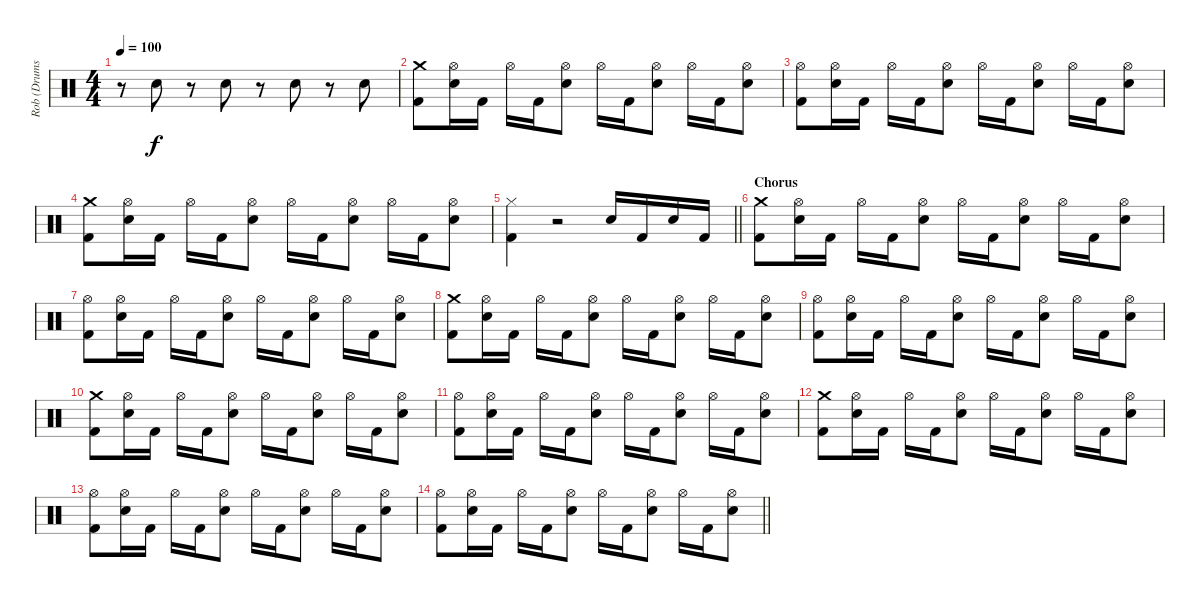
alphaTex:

\track ("Rob (Drums)" "Rob (Drums") {instrument percussion}
\staff {score}
\articulation defaults
\ts (4 4)
\tempo 100
\clef neutral
\ks c
r.8{dy f} "Electric Snare (hit)".8 r.8 "Electric Snare (hit)".8 r.8 "Electric Snare (hit)".8 r.8 "Electric Snare (hit)".8 |
("Crash medium (hit)" "Kick (hit) 2").8 ("Hi-Hat (open)" "Electric Snare (hit)").16 "Kick (hit) 2".16 "Hi-Hat (open)".16 "Kick (hit) 2".16 ("Hi-Hat (open)" "Electric Snare (hit)").8 "Hi-Hat (open)".16 "Kick (hit) 2".16 ("Hi-Hat (open)" "Electric Snare (hit)").8 "Hi-Hat (open)".16 "Kick (hit) 2".16 ("Hi-Hat (open)" "Electric Snare (hit)").8 |
("Hi-Hat (open)" "Kick (hit) 2").8 ("Hi-Hat (open)" "Electric Snare (hit)").16 "Kick (hit) 2".16 "Hi-Hat (open)".16 "Kick (hit) 2".16 ("Hi-Hat (open)" "Electric Snare (hit)").8 "Hi-Hat (open)".16 "Kick (hit) 2".16 ("Hi-Hat (open)" "Electric Snare (hit)").8 "Hi-Hat (open)".16 "Kick (hit) 2".16 ("Hi-Hat (open)" "Electric Snare (hit)").8 |
("Crash medium (hit)" "Kick (hit) 2").8 ("Hi-Hat (open)" "Electric Snare (hit)").16 "Kick (hit) 2".16 "Hi-Hat (open)".16 "Kick (hit) 2".16 ("Hi-Hat (open)" "Electric Snare (hit)").8 "Hi-Hat (open)".16 "Kick (hit) 2".16 ("Hi-Hat (open)" "Electric Snare (hit)").8 "Hi-Hat (open)".16 "Kick (hit) 2".16 ("Hi-Hat (open)" "Electric Snare (hit)").8 |
\barLineRight lightlight
("Hi-Hat (closed)" "Kick (hit) 2").4 r.2 "Electric Snare (hit)".16 "Kick (hit) 2".16 "Electric Snare (hit)".16 "Kick (hit) 2".16 |
\section ("" "Chorus")
("Crash medium (hit)" "Kick (hit) 2").8 ("Hi-Hat (open)" "Electric Snare (hit)").16 "Kick (hit) 2".16 "Hi-Hat (open)".16 "Kick (hit) 2".16 ("Hi-Hat (open)" "Electric Snare (hit)").8 "Hi-Hat (open)".16 "Kick (hit) 2".16 ("Hi-Hat (open)" "Electric Snare (hit)").8 "Hi-Hat (open)".16 "Kick (hit) 2".16 ("Hi-Hat (open)" "Electric Snare (hit)").8 |
("Hi-Hat (open)" "Kick (hit) 2").8 ("Hi-Hat (open)" "Electric Snare (hit)").16 "Kick (hit) 2".16 "Hi-Hat (open)".16 "Kick (hit) 2".16 ("Hi-Hat (open)" "Electric Snare (hit)").8 "Hi-Hat (open)".16 "Kick (hit) 2".16 ("Hi-Hat (open)" "Electric Snare (hit)").8 "Hi-Hat (open)".16 "Kick (hit) 2".16 ("Hi-Hat (open)" "Electric Snare (hit)").8 |
("Crash medium (hit)" "Kick (hit) 2").8 ("Hi-Hat (open)" "Electric Snare (hit)").16 "Kick (hit) 2".16 "Hi-Hat (open)".16 "Kick (hit) 2".16 ("Hi-Hat (open)" "Electric Snare (hit)").8 "Hi-Hat (open)".16 "Kick (hit) 2".16 ("Hi-Hat (open)" "Electric Snare (hit)").8 "Hi-Hat (open)".16 "Kick (hit) 2".16 ("Hi-Hat (open)" "Electric Snare (hit)").8 |
("Hi-Hat (open)" "Kick (hit) 2").8 ("Hi-Hat (open)" "Electric Snare (hit)").16 "Kick (hit) 2".16 "Hi-Hat (open)".16 "Kick (hit) 2".16 ("Hi-Hat (open)" "Electric Snare (hit)").8 "Hi-Hat (open)".16 "Kick (hit) 2".16 ("Hi-Hat (open)" "Electric Snare (hit)").8 "Hi-Hat (open)".16 "Kick (hit) 2".16 ("Hi-Hat (open)" "Electric Snare (hit)").8 |
("Crash medium (hit)" "Kick (hit) 2").8 ("Hi-Hat (open)" "Electric Snare (hit)").16 "Kick (hit) 2".16 "Hi-Hat (open)".16 "Kick (hit) 2".16 ("Hi-Hat (open)" "Electric Snare (hit)").8 "Hi-Hat (open)".16 "Kick (hit) 2".16 ("Hi-Hat (open)" "Electric Snare (hit)").8 "Hi-Hat (open)".16 "Kick (hit) 2".16 ("Hi-Hat (open)" "Electric Snare (hit)").8 |
("Hi-Hat (open)" "Kick (hit) 2").8 ("Hi-Hat (open)" "Electric Snare (hit)").16 "Kick (hit) 2".16 "Hi-Hat (open)".16 "Kick (hit) 2".16 ("Hi-Hat (open)" "Electric Snare (hit)").8 "Hi-Hat (open)".16 "Kick (hit) 2".16 ("Hi-Hat (open)" "Electric Snare (hit)").8 "Hi-Hat (open)".16 "Kick (hit) 2".16 ("Hi-Hat (open)" "Electric Snare (hit)").8 |
("Crash medium (hit)" "Kick (hit) 2").8 ("Hi-Hat (open)" "Electric Snare (hit)").16 "Kick (hit) 2".16 "Hi-Hat (open)".16 "Kick (hit) 2".16 ("Hi-Hat (open)" "Electric Snare (hit)").8 "Hi-Hat (open)".16 "Kick (hit) 2".16 ("Hi-Hat (open)" "Electric Snare (hit)").8 "Hi-Hat (open)".16 "Kick (hit) 2".16 ("Hi-Hat (open)" "Electric Snare (hit)").8 |
("Hi-Hat (open)" "Kick (hit) 2").8 ("Hi-Hat (open)" "Electric Snare (hit)").16 "Kick (hit) 2".16 "Hi-Hat (open)".16 "Kick (hit) 2".16 ("Hi-Hat (open)" "Electric Snare (hit)").8 "Hi-Hat (open)".16 "Kick (hit) 2".16 ("Hi-Hat (open)" "Electric Snare (hit)").8 "Hi-Hat (open)".16 "Kick (hit) 2".16 ("Hi-Hat (open)" "Electric Snare (hit)").8 |
\barLineRight lightlight
("Hi-Hat (open)" "Kick (hit) 2").8 ("Hi-Hat (open)" "Electric Snare (hit)").16 "Kick (hit) 2".16 "Hi-Hat (open)".16 "Kick (hit) 2".16 ("Hi-Hat (open)" "Electric Snare (hit)").8 "Hi-Hat (open)".16 "Kick (hit) 2".16 ("Hi-Hat (open)" "Electric Snare (hit)").8 "Hi-Hat (open)".16 "Kick (hit) 2".16 ("Hi-Hat (open)" "Electric Snare (hit)").8
